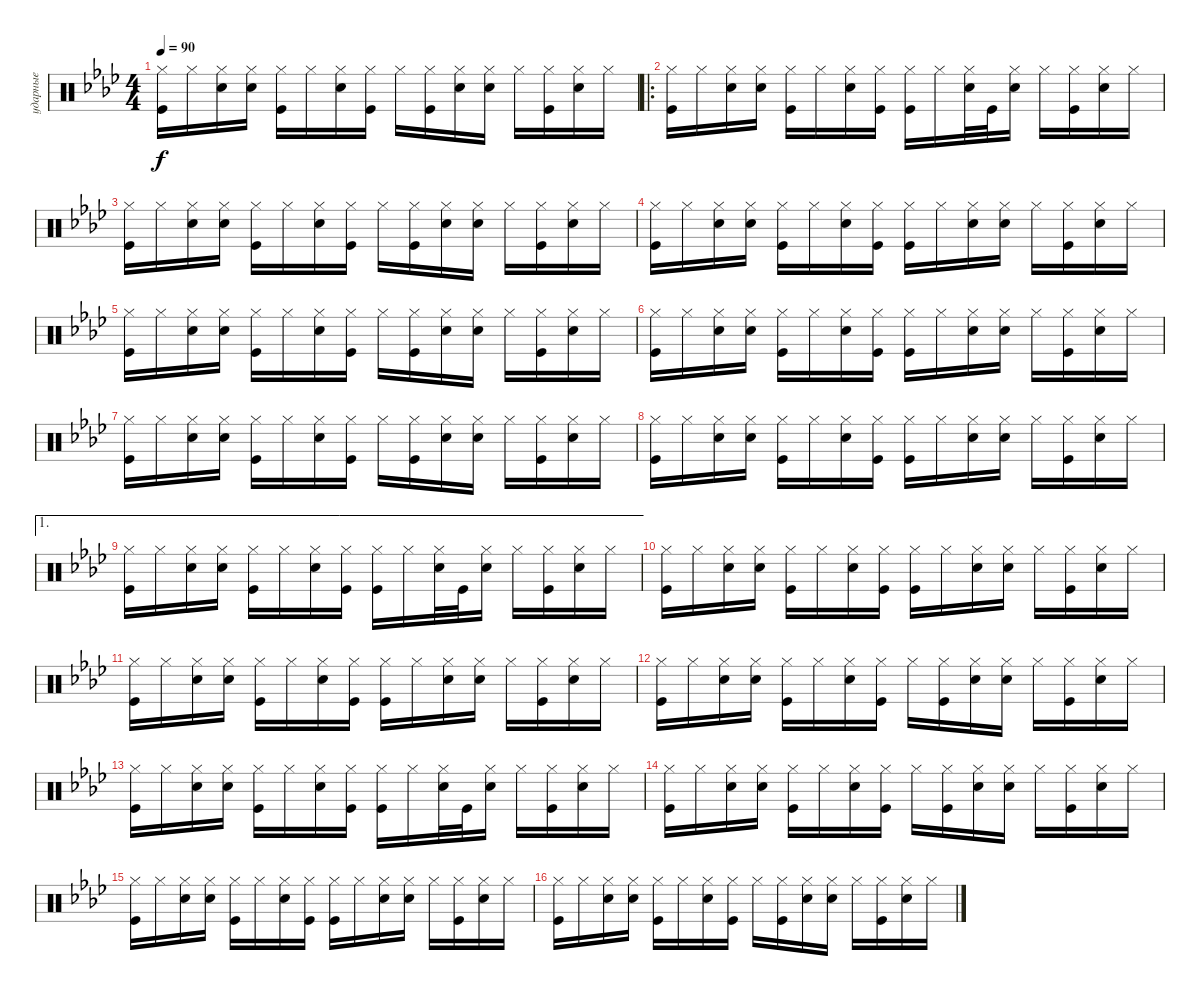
\track ("ударные" "ударные") {instrument percussion}
\staff {score}
\articulation defaults
\ts (4 4)
\tempo 90
\clef neutral
\ks fminor
("Kick (hit)" "Hi-Hat (closed)").16{dy f} "Hi-Hat (closed)".16 ("Snare (hit) 2" "Hi-Hat (closed)").16 ("Snare (hit) 2" "Hi-Hat (closed)").16 ("Kick (hit)" "Hi-Hat (closed)").16 "Hi-Hat (closed)".16 ("Snare (hit) 2" "Hi-Hat (closed)").16 ("Kick (hit)" "Hi-Hat (closed)").16 "Hi-Hat (closed)".16 ("Hi-Hat (closed)" "Kick (hit)").16 ("Snare (hit) 2" "Hi-Hat (closed)").16 ("Snare (hit) 2" "Hi-Hat (closed)").16 "Hi-Hat (closed)".16 ("Hi-Hat (closed)" "Kick (hit)").16 ("Snare (hit) 2" "Hi-Hat (closed)").16 "Hi-Hat (closed)".16 |
\ro
("Kick (hit)" "Hi-Hat (closed)").16 "Hi-Hat (closed)".16 ("Snare (hit) 2" "Hi-Hat (closed)").16 ("Snare (hit) 2" "Hi-Hat (closed)").16 ("Kick (hit)" "Hi-Hat (closed)").16 "Hi-Hat (closed)".16 ("Snare (hit) 2" "Hi-Hat (closed)").16 ("Kick (hit)" "Hi-Hat (closed)").16 ("Kick (hit)" "Hi-Hat (closed)").16 "Hi-Hat (closed)".16 ("Snare (hit) 2" "Hi-Hat (closed)").32 "Kick (hit)".32 ("Snare (hit) 2" "Hi-Hat (closed)").16 "Hi-Hat (closed)".16 ("Hi-Hat (closed)" "Kick (hit)").16 ("Snare (hit) 2" "Hi-Hat (closed)").16 "Hi-Hat (closed)".16 |
("Kick (hit)" "Hi-Hat (closed)").16 "Hi-Hat (closed)".16 ("Snare (hit) 2" "Hi-Hat (closed)").16 ("Snare (hit) 2" "Hi-Hat (closed)").16 ("Kick (hit)" "Hi-Hat (closed)").16 "Hi-Hat (closed)".16 ("Snare (hit) 2" "Hi-Hat (closed)").16 ("Kick (hit)" "Hi-Hat (closed)").16 "Hi-Hat (closed)".16 ("Hi-Hat (closed)" "Kick (hit)").16 ("Snare (hit) 2" "Hi-Hat (closed)").16 ("Snare (hit) 2" "Hi-Hat (closed)").16 "Hi-Hat (closed)".16 ("Hi-Hat (closed)" "Kick (hit)").16 ("Snare (hit) 2" "Hi-Hat (closed)").16 "Hi-Hat (closed)".16 |
("Kick (hit)" "Hi-Hat (closed)").16 "Hi-Hat (closed)".16 ("Snare (hit) 2" "Hi-Hat (closed)").16 ("Snare (hit) 2" "Hi-Hat (closed)").16 ("Kick (hit)" "Hi-Hat (closed)").16 "Hi-Hat (closed)".16 ("Snare (hit) 2" "Hi-Hat (closed)").16 ("Kick (hit)" "Hi-Hat (closed)").16 ("Kick (hit)" "Hi-Hat (closed)").16 "Hi-Hat (closed)".16 ("Snare (hit) 2" "Hi-Hat (closed)").16 ("Snare (hit) 2" "Hi-Hat (closed)").16 "Hi-Hat (closed)".16 ("Hi-Hat (closed)" "Kick (hit)").16 ("Snare (hit) 2" "Hi-Hat (closed)").16 "Hi-Hat (closed)".16 |
("Kick (hit)" "Hi-Hat (closed)").16 "Hi-Hat (closed)".16 ("Snare (hit) 2" "Hi-Hat (closed)").16 ("Snare (hit) 2" "Hi-Hat (closed)").16 ("Kick (hit)" "Hi-Hat (closed)").16 "Hi-Hat (closed)".16 ("Snare (hit) 2" "Hi-Hat (closed)").16 ("Kick (hit)" "Hi-Hat (closed)").16 "Hi-Hat (closed)".16 ("Hi-Hat (closed)" "Kick (hit)").16 ("Snare (hit) 2" "Hi-Hat (closed)").16 ("Snare (hit) 2" "Hi-Hat (closed)").16 "Hi-Hat (closed)".16 ("Hi-Hat (closed)" "Kick (hit)").16 ("Snare (hit) 2" "Hi-Hat (closed)").16 "Hi-Hat (closed)".16 |
("Kick (hit)" "Hi-Hat (closed)").16 "Hi-Hat (closed)".16 ("Snare (hit) 2" "Hi-Hat (closed)").16 ("Snare (hit) 2" "Hi-Hat (closed)").16 ("Kick (hit)" "Hi-Hat (closed)").16 "Hi-Hat (closed)".16 ("Snare (hit) 2" "Hi-Hat (closed)").16 ("Kick (hit)" "Hi-Hat (closed)").16 ("Kick (hit)" "Hi-Hat (closed)").16 "Hi-Hat (closed)".16 ("Snare (hit) 2" "Hi-Hat (closed)").16 ("Snare (hit) 2" "Hi-Hat (closed)").16 "Hi-Hat (closed)".16 ("Hi-Hat (closed)" "Kick (hit)").16 ("Snare (hit) 2" "Hi-Hat (closed)").16 "Hi-Hat (closed)".16 |
("Kick (hit)" "Hi-Hat (closed)").16 "Hi-Hat (closed)".16 ("Snare (hit) 2" "Hi-Hat (closed)").16 ("Snare (hit) 2" "Hi-Hat (closed)").16 ("Kick (hit)" "Hi-Hat (closed)").16 "Hi-Hat (closed)".16 ("Snare (hit) 2" "Hi-Hat (closed)").16 ("Kick (hit)" "Hi-Hat (closed)").16 "Hi-Hat (closed)".16 ("Hi-Hat (closed)" "Kick (hit)").16 ("Snare (hit) 2" "Hi-Hat (closed)").16 ("Snare (hit) 2" "Hi-Hat (closed)").16 "Hi-Hat (closed)".16 ("Hi-Hat (closed)" "Kick (hit)").16 ("Snare (hit) 2" "Hi-Hat (closed)").16 "Hi-Hat (closed)".16 |
("Kick (hit)" "Hi-Hat (closed)").16 "Hi-Hat (closed)".16 ("Snare (hit) 2" "Hi-Hat (closed)").16 ("Snare (hit) 2" "Hi-Hat (closed)").16 ("Kick (hit)" "Hi-Hat (closed)").16 "Hi-Hat (closed)".16 ("Snare (hit) 2" "Hi-Hat (closed)").16 ("Kick (hit)" "Hi-Hat (closed)").16 ("Kick (hit)" "Hi-Hat (closed)").16 "Hi-Hat (closed)".16 ("Snare (hit) 2" "Hi-Hat (closed)").16 ("Snare (hit) 2" "Hi-Hat (closed)").16 "Hi-Hat (closed)".16 ("Hi-Hat (closed)" "Kick (hit)").16 ("Snare (hit) 2" "Hi-Hat (closed)").16 "Hi-Hat (closed)".16 |
\ae 1
("Kick (hit)" "Hi-Hat (closed)").16 "Hi-Hat (closed)".16 ("Snare (hit) 2" "Hi-Hat (closed)").16 ("Snare (hit) 2" "Hi-Hat (closed)").16 ("Kick (hit)" "Hi-Hat (closed)").16 "Hi-Hat (closed)".16 ("Snare (hit) 2" "Hi-Hat (closed)").16 ("Kick (hit)" "Hi-Hat (closed)").16 ("Kick (hit)" "Hi-Hat (closed)").16 "Hi-Hat (closed)".16 ("Snare (hit) 2" "Hi-Hat (closed)").32 "Kick (hit)".32 ("Snare (hit) 2" "Hi-Hat (closed)").16 "Hi-Hat (closed)".16 ("Hi-Hat (closed)" "Kick (hit)").16 ("Snare (hit) 2" "Hi-Hat (closed)").16 "Hi-Hat (closed)".16 |
("Kick (hit)" "Hi-Hat (closed)").16 "Hi-Hat (closed)".16 ("Snare (hit) 2" "Hi-Hat (closed)").16 ("Snare (hit) 2" "Hi-Hat (closed)").16 ("Kick (hit)" "Hi-Hat (closed)").16 "Hi-Hat (closed)".16 ("Snare (hit) 2" "Hi-Hat (closed)").16 ("Kick (hit)" "Hi-Hat (closed)").16 ("Hi-Hat (closed)" "Kick (hit)").16 "Hi-Hat (closed)".16 ("Snare (hit) 2" "Hi-Hat (closed)").16 ("Snare (hit) 2" "Hi-Hat (closed)").16 "Hi-Hat (closed)".16 ("Hi-Hat (closed)" "Kick (hit)").16 ("Snare (hit) 2" "Hi-Hat (closed)").16 "Hi-Hat (closed)".16 |
("Kick (hit)" "Hi-Hat (closed)").16 "Hi-Hat (closed)".16 ("Snare (hit) 2" "Hi-Hat (closed)").16 ("Snare (hit) 2" "Hi-Hat (closed)").16 ("Kick (hit)" "Hi-Hat (closed)").16 "Hi-Hat (closed)".16 ("Snare (hit) 2" "Hi-Hat (closed)").16 ("Kick (hit)" "Hi-Hat (closed)").16 ("Kick (hit)" "Hi-Hat (closed)").16 "Hi-Hat (closed)".16 ("Snare (hit) 2" "Hi-Hat (closed)").16 ("Snare (hit) 2" "Hi-Hat (closed)").16 "Hi-Hat (closed)".16 ("Hi-Hat (closed)" "Kick (hit)").16 ("Snare (hit) 2" "Hi-Hat (closed)").16 "Hi-Hat (closed)".16 |
("Kick (hit)" "Hi-Hat (closed)").16 "Hi-Hat (closed)".16 ("Snare (hit) 2" "Hi-Hat (closed)").16 ("Snare (hit) 2" "Hi-Hat (closed)").16 ("Kick (hit)" "Hi-Hat (closed)").16 "Hi-Hat (closed)".16 ("Snare (hit) 2" "Hi-Hat (closed)").16 ("Kick (hit)" "Hi-Hat (closed)").16 "Hi-Hat (closed)".16 ("Hi-Hat (closed)" "Kick (hit)").16 ("Snare (hit) 2" "Hi-Hat (closed)").16 ("Snare (hit) 2" "Hi-Hat (closed)").16 "Hi-Hat (closed)".16 ("Hi-Hat (closed)" "Kick (hit)").16 ("Snare (hit) 2" "Hi-Hat (closed)").16 "Hi-Hat (closed)".16 |
("Kick (hit)" "Hi-Hat (closed)").16 "Hi-Hat (closed)".16 ("Snare (hit) 2" "Hi-Hat (closed)").16 ("Snare (hit) 2" "Hi-Hat (closed)").16 ("Kick (hit)" "Hi-Hat (closed)").16 "Hi-Hat (closed)".16 ("Snare (hit) 2" "Hi-Hat (closed)").16 ("Kick (hit)" "Hi-Hat (closed)").16 ("Kick (hit)" "Hi-Hat (closed)").16 "Hi-Hat (closed)".16 ("Snare (hit) 2" "Hi-Hat (closed)").32 "Kick (hit)".32 ("Snare (hit) 2" "Hi-Hat (closed)").16 "Hi-Hat (closed)".16 ("Hi-Hat (closed)" "Kick (hit)").16 ("Snare (hit) 2" "Hi-Hat (closed)").16 "Hi-Hat (closed)".16 |
("Kick (hit)" "Hi-Hat (closed)").16 "Hi-Hat (closed)".16 ("Snare (hit) 2" "Hi-Hat (closed)").16 ("Snare (hit) 2" "Hi-Hat (closed)").16 ("Kick (hit)" "Hi-Hat (closed)").16 "Hi-Hat (closed)".16 ("Snare (hit) 2" "Hi-Hat (closed)").16 ("Kick (hit)" "Hi-Hat (closed)").16 "Hi-Hat (closed)".16 ("Hi-Hat (closed)" "Kick (hit)").16 ("Snare (hit) 2" "Hi-Hat (closed)").16 ("Snare (hit) 2" "Hi-Hat (closed)").16 "Hi-Hat (closed)".16 ("Hi-Hat (closed)" "Kick (hit)").16 ("Snare (hit) 2" "Hi-Hat (closed)").16 "Hi-Hat (closed)".16 |
("Kick (hit)" "Hi-Hat (closed)").16 "Hi-Hat (closed)".16 ("Snare (hit) 2" "Hi-Hat (closed)").16 ("Snare (hit) 2" "Hi-Hat (closed)").16 ("Kick (hit)" "Hi-Hat (closed)").16 "Hi-Hat (closed)".16 ("Snare (hit) 2" "Hi-Hat (closed)").16 ("Kick (hit)" "Hi-Hat (closed)").16 ("Kick (hit)" "Hi-Hat (closed)").16 "Hi-Hat (closed)".16 ("Snare (hit) 2" "Hi-Hat (closed)").16 ("Snare (hit) 2" "Hi-Hat (closed)").16 "Hi-Hat (closed)".16 ("Hi-Hat (closed)" "Kick (hit)").16 ("Snare (hit) 2" "Hi-Hat (closed)").16 "Hi-Hat (closed)".16 |
("Kick (hit)" "Hi-Hat (closed)").16 "Hi-Hat (closed)".16 ("Snare (hit) 2" "Hi-Hat (closed)").16 ("Snare (hit) 2" "Hi-Hat (closed)").16 ("Kick (hit)" "Hi-Hat (closed)").16 "Hi-Hat (closed)".16 ("Snare (hit) 2" "Hi-Hat (closed)").16 ("Kick (hit)" "Hi-Hat (closed)").16 "Hi-Hat (closed)".16 ("Hi-Hat (closed)" "Kick (hit)").16 ("Snare (hit) 2" "Hi-Hat (closed)").16 ("Snare (hit) 2" "Hi-Hat (closed)").16 "Hi-Hat (closed)".16 ("Hi-Hat (closed)" "Kick (hit)").16 ("Snare (hit) 2" "Hi-Hat (closed)").16 "Hi-Hat (closed)".16
